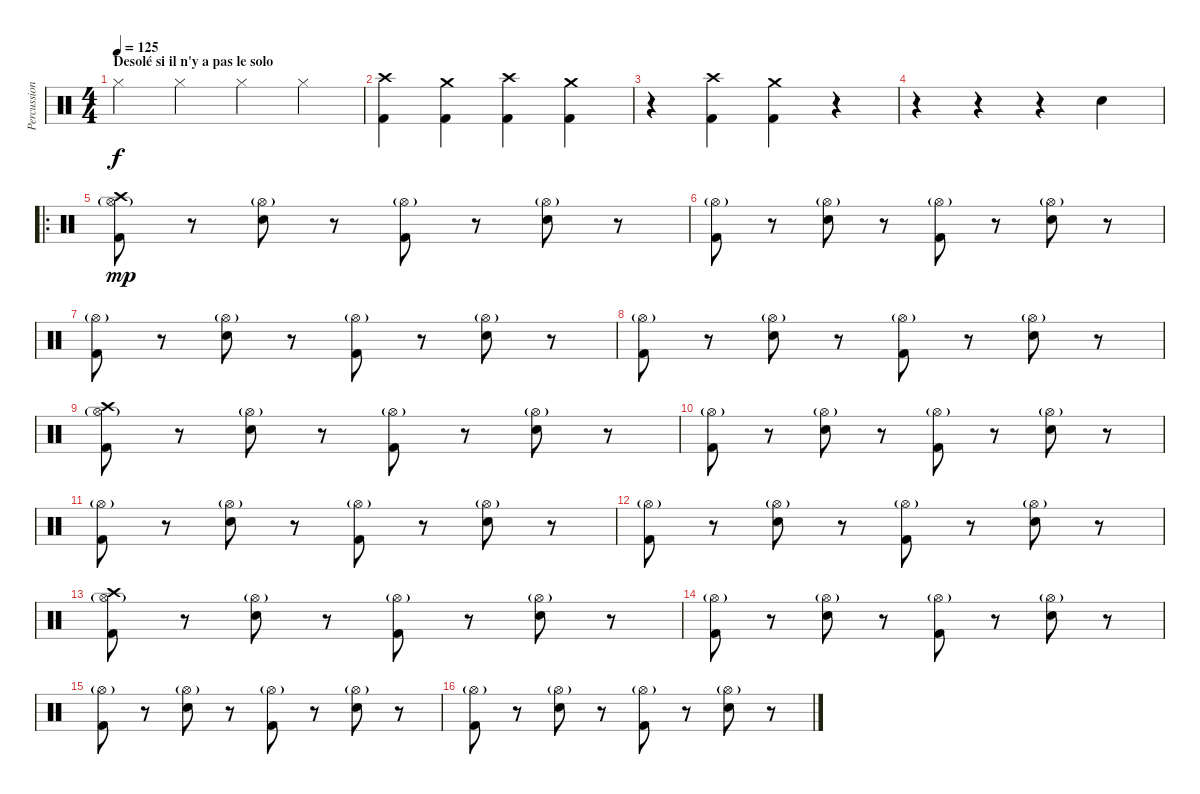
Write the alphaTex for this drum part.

\track ("Percussions" "Percussion") {instrument percussion}
\staff {score}
\articulation defaults
\ts (4 4)
\section ("" "Desolé si il n'y a pas le solo")
\tempo 125
\clef neutral
\ks c "Hi-Hat (closed)".4{dy f} "Hi-Hat (closed)".4 "Hi-Hat (closed)".4 "Hi-Hat (closed)".4
|
("Crash high (hit)" "Kick (hit) 2").4 ("Crash medium (hit)" "Kick (hit) 2").4 ("Crash high (hit)" "Kick (hit) 2").4 ("Crash medium (hit)" "Kick (hit) 2").4 |
r.4 ("Crash high (hit)" "Kick (hit) 2").4 ("Crash medium (hit)" "Kick (hit) 2").4 r.4 |
r.4 r.4 r.4 "Snare (hit) 2".4 |
\ro
("Hi-Hat (open)"{g} "Crash high (hit)" "Kick (hit) 2").8{dy mp} r.8 ("Hi-Hat (open)"{g} "Snare (hit) 2").8 r.8 ("Hi-Hat (open)"{g} "Kick (hit) 2").8 r.8 ("Hi-Hat (open)"{g} "Snare (hit) 2").8 r.8 |
("Hi-Hat (open)"{g} "Kick (hit) 2").8 r.8 ("Hi-Hat (open)"{g} "Snare (hit) 2").8 r.8 ("Hi-Hat (open)"{g} "Kick (hit) 2").8 r.8 ("Hi-Hat (open)"{g} "Snare (hit) 2").8 r.8 |
("Hi-Hat (open)"{g} "Kick (hit) 2").8 r.8 ("Hi-Hat (open)"{g} "Snare (hit) 2").8 r.8 ("Hi-Hat (open)"{g} "Kick (hit) 2").8 r.8 ("Hi-Hat (open)"{g} "Snare (hit) 2").8 r.8 |
("Hi-Hat (open)"{g} "Kick (hit) 2").8 r.8 ("Hi-Hat (open)"{g} "Snare (hit) 2").8 r.8 ("Hi-Hat (open)"{g} "Kick (hit) 2").8 r.8 ("Hi-Hat (open)"{g} "Snare (hit) 2").8 r.8 |
("Hi-Hat (open)"{g} "Crash high (hit)" "Kick (hit) 2").8 r.8 ("Hi-Hat (open)"{g} "Snare (hit) 2").8 r.8 ("Hi-Hat (open)"{g} "Kick (hit) 2").8 r.8 ("Hi-Hat (open)"{g} "Snare (hit) 2").8 r.8 |
("Hi-Hat (open)"{g} "Kick (hit) 2").8 r.8 ("Hi-Hat (open)"{g} "Snare (hit) 2").8 r.8 ("Hi-Hat (open)"{g} "Kick (hit) 2").8 r.8 ("Hi-Hat (open)"{g} "Snare (hit) 2").8 r.8 |
("Hi-Hat (open)"{g} "Kick (hit) 2").8 r.8 ("Hi-Hat (open)"{g} "Snare (hit) 2").8 r.8 ("Hi-Hat (open)"{g} "Kick (hit) 2").8 r.8 ("Hi-Hat (open)"{g} "Snare (hit) 2").8 r.8 |
("Hi-Hat (open)"{g} "Kick (hit) 2").8 r.8 ("Hi-Hat (open)"{g} "Snare (hit) 2").8 r.8 ("Hi-Hat (open)"{g} "Kick (hit) 2").8 r.8 ("Hi-Hat (open)"{g} "Snare (hit) 2").8 r.8 |
("Hi-Hat (open)"{g} "Crash high (hit)" "Kick (hit) 2").8 r.8 ("Hi-Hat (open)"{g} "Snare (hit) 2").8 r.8 ("Hi-Hat (open)"{g} "Kick (hit) 2").8 r.8 ("Hi-Hat (open)"{g} "Snare (hit) 2").8 r.8 |
("Hi-Hat (open)"{g} "Kick (hit) 2").8 r.8 ("Hi-Hat (open)"{g} "Snare (hit) 2").8 r.8 ("Hi-Hat (open)"{g} "Kick (hit) 2").8 r.8 ("Hi-Hat (open)"{g} "Snare (hit) 2").8 r.8 |
("Hi-Hat (open)"{g} "Kick (hit) 2").8 r.8 ("Hi-Hat (open)"{g} "Snare (hit) 2").8 r.8 ("Hi-Hat (open)"{g} "Kick (hit) 2").8 r.8 ("Hi-Hat (open)"{g} "Snare (hit) 2").8 r.8 |
("Hi-Hat (open)"{g} "Kick (hit) 2").8 r.8 ("Hi-Hat (open)"{g} "Snare (hit) 2").8 r.8 ("Hi-Hat (open)"{g} "Kick (hit) 2").8 r.8 ("Hi-Hat (open)"{g} "Snare (hit) 2").8 r.8
